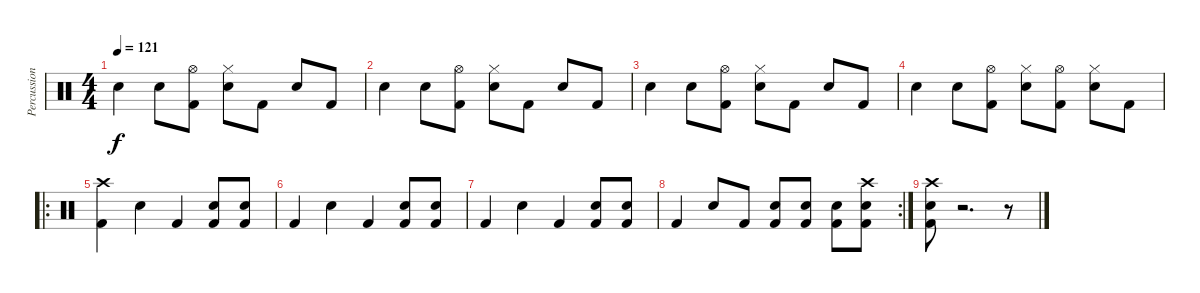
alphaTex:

\track ("Percussion" "Percussion") {instrument percussion}
\staff {score}
\articulation defaults
\ts (4 4)
\tempo 121
\clef neutral
\ks c "Snare (hit) 2".4{dy f} "Snare (hit) 2".8
("Hi-Hat (open)" "Kick (hit) 2").8 ("Hi-Hat (closed)" "Snare (hit) 2").8 "Kick (hit) 2".8 "Snare (hit) 2".8 "Kick (hit) 2".8 |
"Snare (hit) 2".4 "Snare (hit) 2".8 ("Hi-Hat (open)" "Kick (hit) 2").8 ("Hi-Hat (closed)" "Snare (hit) 2").8 "Kick (hit) 2".8 "Snare (hit) 2".8 "Kick (hit) 2".8 |
"Snare (hit) 2".4 "Snare (hit) 2".8 ("Hi-Hat (open)" "Kick (hit) 2").8 ("Hi-Hat (closed)" "Snare (hit) 2").8 "Kick (hit) 2".8 "Snare (hit) 2".8 "Kick (hit) 2".8 |
"Snare (hit) 2".4 "Snare (hit) 2".8 ("Hi-Hat (open)" "Kick (hit) 2").8 ("Hi-Hat (closed)" "Snare (hit) 2").8 ("Hi-Hat (open)" "Kick (hit) 2").8 ("Hi-Hat (closed)" "Snare (hit) 2").8 "Kick (hit) 2".8 |
\ro
("Crash high (hit)" "Kick (hit) 2").4 "Snare (hit) 2".4 "Kick (hit) 2".4 ("Kick (hit) 2" "Snare (hit) 2").8 ("Kick (hit) 2" "Snare (hit) 2").8 |
"Kick (hit) 2".4 "Snare (hit) 2".4 "Kick (hit) 2".4 ("Kick (hit) 2" "Snare (hit) 2").8 ("Kick (hit) 2" "Snare (hit) 2").8 |
"Kick (hit) 2".4 "Snare (hit) 2".4 "Kick (hit) 2".4 ("Kick (hit) 2" "Snare (hit) 2").8 ("Kick (hit) 2" "Snare (hit) 2").8 |
\rc 2 "Kick (hit) 2".4 "Snare (hit) 2".8 "Kick (hit) 2".8
("Kick (hit) 2" "Snare (hit) 2").8 ("Kick (hit) 2" "Snare (hit) 2").8 ("Kick (hit) 2" "Snare (hit) 2").8 ("Crash high (hit)" "Kick (hit) 2" "Snare (hit) 2").8 |
("Crash high (hit)" "Kick (hit) 2" "Snare (hit) 2").8 r.2{d} r.8
